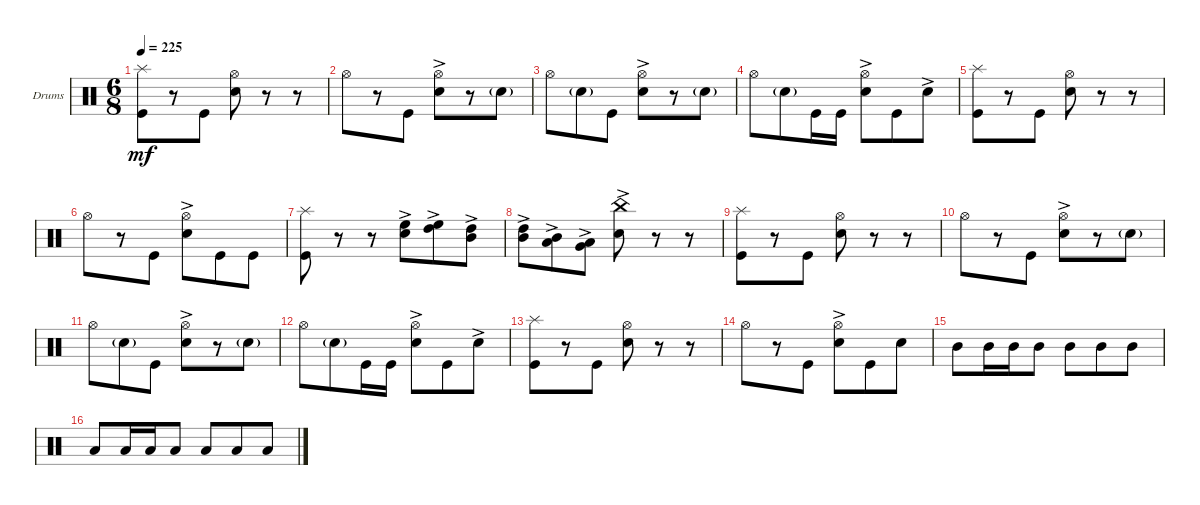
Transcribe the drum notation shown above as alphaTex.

\bracketExtendMode groupsimilarinstruments
\firstSystemTrackNameOrientation horizontal
\otherSystemsTrackNameOrientation horizontal
\track ("Drumkit" "Drums") {solo instrument percussion}
\staff {score}
\articulation defaults
\ts (6 8)
\tempo 225
\clef neutral
\ks c
("Kick (hit)" "Splash (hit)").8{dy mf} r.8 "Kick (hit)".8 ("Snare (hit) 2" "Hi-Hat (open)").8 r.8 r.8 |
"Hi-Hat (open)".8 r.8 "Kick (hit)".8 ("Snare (hit) 2"{ac} "Hi-Hat (open)").8 r.8 "Snare (hit) 2"{g}.8 |
"Hi-Hat (open)".8 "Snare (hit) 2"{g}.8 "Kick (hit)".8 ("Snare (hit) 2"{ac} "Hi-Hat (open)").8 r.8 "Snare (hit) 2"{g}.8 |
"Hi-Hat (open)".8 "Snare (hit) 2"{g}.8 "Kick (hit)".16 "Kick (hit)".16 ("Snare (hit) 2"{ac} "Hi-Hat (open)").8 "Kick (hit)".8 "Snare (hit) 2"{ac}.8 |
("Kick (hit)" "Splash (hit)").8 r.8 "Kick (hit)".8 ("Snare (hit) 2" "Hi-Hat (open)").8 r.8 r.8 |
"Hi-Hat (open)".8 r.8 "Kick (hit)".8 ("Snare (hit) 2"{ac} "Hi-Hat (open)").8 "Kick (hit)".8 "Kick (hit)".8 |
("Kick (hit)" "Splash (hit)").8 r.8 r.8 ("High Floor Tom (hit)"{ac} "Snare (hit) 2"{ac}).8 ("High Tom (hit)"{ac} "High Floor Tom (hit)"{ac}).8 ("Mid Tom (hit)"{ac} "High Tom (hit)"{ac}).8 |
("Mid Tom (hit)"{ac} "High Tom (hit)"{ac}).8 ("Low Tom (hit)"{ac} "Mid Tom (hit)"{ac}).8 ("Very Low Tom (hit)"{ac} "Low Tom (hit)"{ac}).8 ("Snare (hit) 2"{ac} "China (hit)"{ac}).8 r.8 r.8 |
("Kick (hit)" "Splash (hit)").8 r.8 "Kick (hit)".8 ("Snare (hit) 2" "Hi-Hat (open)").8 r.8 r.8 |
"Hi-Hat (open)".8 r.8 "Kick (hit)".8 ("Snare (hit) 2"{ac} "Hi-Hat (open)").8 r.8 "Snare (hit) 2"{g}.8 |
"Hi-Hat (open)".8 "Snare (hit) 2"{g}.8 "Kick (hit)".8 ("Snare (hit) 2"{ac} "Hi-Hat (open)").8 r.8 "Snare (hit) 2"{g}.8 |
"Hi-Hat (open)".8 "Snare (hit) 2"{g}.8 "Kick (hit)".16 "Kick (hit)".16 ("Snare (hit) 2"{ac} "Hi-Hat (open)").8 "Kick (hit)".8 "Snare (hit) 2"{ac}.8 |
("Kick (hit)" "Splash (hit)").8 r.8 "Kick (hit)".8 ("Snare (hit) 2" "Hi-Hat (open)").8 r.8 r.8 |
"Hi-Hat (open)".8 r.8 "Kick (hit)".8 ("Snare (hit) 2"{ac} "Hi-Hat (open)").8 "Kick (hit)".8 "Snare (hit) 2".8 |
"Mid Tom (hit)".8 "Mid Tom (hit)".16 "Mid Tom (hit)".16 "Mid Tom (hit)".8 "Mid Tom (hit)".8 "Mid Tom (hit)".8 "Mid Tom (hit)".8 |
"Low Tom (hit)".8 "Low Tom (hit)".16 "Low Tom (hit)".16 "Low Tom (hit)".8 "Low Tom (hit)".8 "Low Tom (hit)".8 "Low Tom (hit)".8
